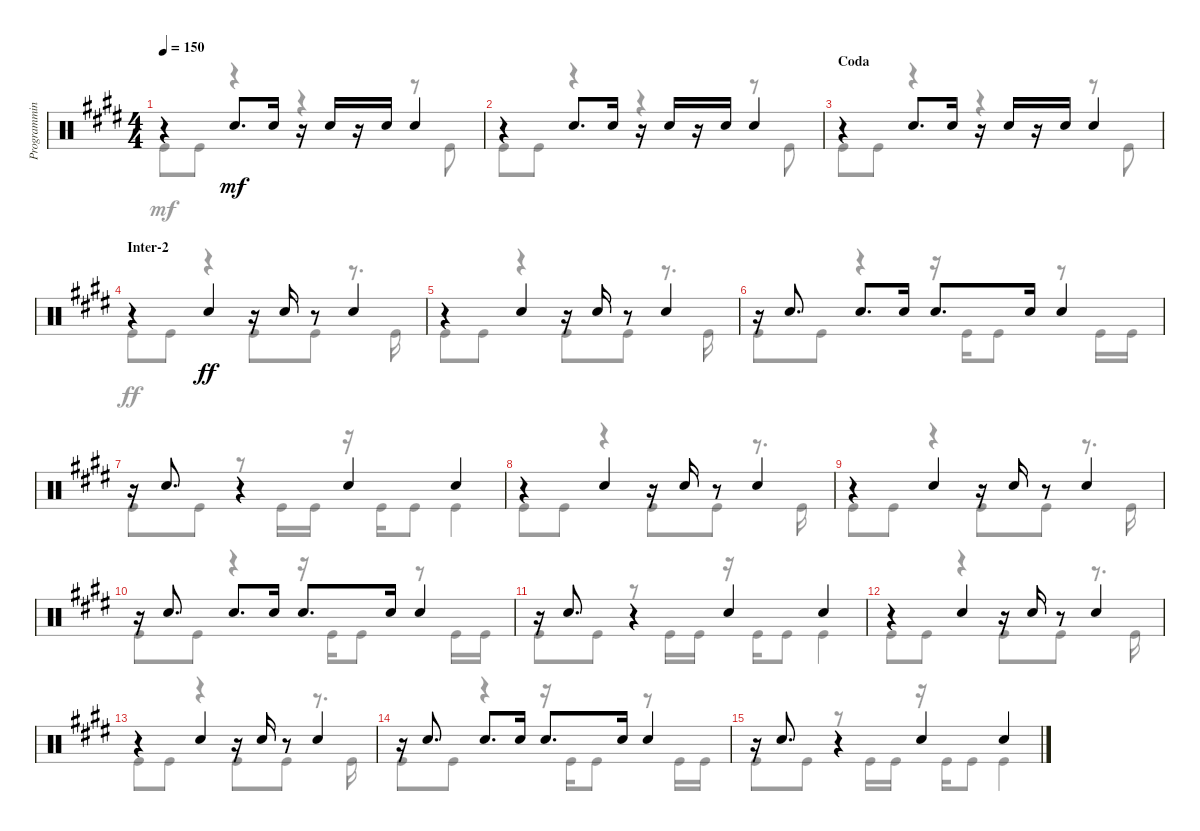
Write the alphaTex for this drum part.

\track ("Programming" "Programmin") {instrument percussion}
\staff {score}
\articulation defaults
\voice
\ts (4 4)
\tempo 150
\clef neutral
\ks e
r.4{dy mf} "Snare (hit) 2".8{d} "Snare (hit) 2".16 r.16 "Snare (hit) 2".16 r.16 "Snare (hit) 2".16 "Snare (hit) 2".4 |
r.4 "Snare (hit) 2".8{d} "Snare (hit) 2".16 r.16 "Snare (hit) 2".16 r.16 "Snare (hit) 2".16 "Snare (hit) 2".4 |
\section ("" "Coda")
r.4 "Snare (hit) 2".8{d} "Snare (hit) 2".16 r.16 "Snare (hit) 2".16 r.16 "Snare (hit) 2".16 "Snare (hit) 2".4 |
\section ("" "Inter-2")
r.4 "Snare (hit) 2".4{dy ff} r.16 "Snare (hit) 2".16 r.8 "Snare (hit) 2".4 |
r.4 "Snare (hit) 2".4 r.16 "Snare (hit) 2".16 r.8 "Snare (hit) 2".4 |
r.16 "Snare (hit) 2".8{d} "Snare (hit) 2".8{d} "Snare (hit) 2".16 "Snare (hit) 2".8{d} "Snare (hit) 2".16 "Snare (hit) 2".4 |
r.16 "Snare (hit) 2".8{d} r.4 "Snare (hit) 2".4 "Snare (hit) 2".4 |
r.4 "Snare (hit) 2".4 r.16 "Snare (hit) 2".16 r.8 "Snare (hit) 2".4 |
r.4 "Snare (hit) 2".4 r.16 "Snare (hit) 2".16 r.8 "Snare (hit) 2".4 |
r.16 "Snare (hit) 2".8{d} "Snare (hit) 2".8{d} "Snare (hit) 2".16 "Snare (hit) 2".8{d} "Snare (hit) 2".16 "Snare (hit) 2".4 |
r.16 "Snare (hit) 2".8{d} r.4 "Snare (hit) 2".4 "Snare (hit) 2".4 |
r.4 "Snare (hit) 2".4 r.16 "Snare (hit) 2".16 r.8 "Snare (hit) 2".4 |
r.4 "Snare (hit) 2".4 r.16 "Snare (hit) 2".16 r.8 "Snare (hit) 2".4 |
r.16 "Snare (hit) 2".8{d} "Snare (hit) 2".8{d} "Snare (hit) 2".16 "Snare (hit) 2".8{d} "Snare (hit) 2".16 "Snare (hit) 2".4 |
r.16 "Snare (hit) 2".8{d} r.4 "Snare (hit) 2".4 "Snare (hit) 2".4 |
\voice
\clef neutral
\ottava regular
\simile none
\ks e "Kick (hit)".8{dy mf} "Kick (hit)".8
r.4 r.4 r.8 "Kick (hit)".8 |
"Kick (hit)".8 "Kick (hit)".8 r.4 r.4 r.8 "Kick (hit)".8 |
"Kick (hit)".8 "Kick (hit)".8 r.4 r.4 r.8 "Kick (hit)".8 |
"Kick (hit)".8{dy ff} "Kick (hit)".8 r.4 "Kick (hit)".8 "Kick (hit)".8 r.8{d} "Kick (hit)".16 |
"Kick (hit)".8 "Kick (hit)".8 r.4 "Kick (hit)".8 "Kick (hit)".8 r.8{d} "Kick (hit)".16 |
"Kick (hit)".8 "Kick (hit)".8 r.4 r.16 "Kick (hit)".16 "Kick (hit)".8 r.8 "Kick (hit)".16 "Kick (hit)".16 |
"Kick (hit)".8 "Kick (hit)".8 r.8 "Kick (hit)".16 "Kick (hit)".16 r.16 "Kick (hit)".16 "Kick (hit)".8 "Kick (hit)".4 |
"Kick (hit)".8 "Kick (hit)".8 r.4 "Kick (hit)".8 "Kick (hit)".8 r.8{d} "Kick (hit)".16 |
"Kick (hit)".8 "Kick (hit)".8 r.4 "Kick (hit)".8 "Kick (hit)".8 r.8{d} "Kick (hit)".16 |
"Kick (hit)".8 "Kick (hit)".8 r.4 r.16 "Kick (hit)".16 "Kick (hit)".8 r.8 "Kick (hit)".16 "Kick (hit)".16 |
"Kick (hit)".8 "Kick (hit)".8 r.8 "Kick (hit)".16 "Kick (hit)".16 r.16 "Kick (hit)".16 "Kick (hit)".8 "Kick (hit)".4 |
"Kick (hit)".8 "Kick (hit)".8 r.4 "Kick (hit)".8 "Kick (hit)".8 r.8{d} "Kick (hit)".16 |
"Kick (hit)".8 "Kick (hit)".8 r.4 "Kick (hit)".8 "Kick (hit)".8 r.8{d} "Kick (hit)".16 |
"Kick (hit)".8 "Kick (hit)".8 r.4 r.16 "Kick (hit)".16 "Kick (hit)".8 r.8 "Kick (hit)".16 "Kick (hit)".16 |
"Kick (hit)".8 "Kick (hit)".8 r.8 "Kick (hit)".16 "Kick (hit)".16 r.16 "Kick (hit)".16 "Kick (hit)".8 "Kick (hit)".4 |
